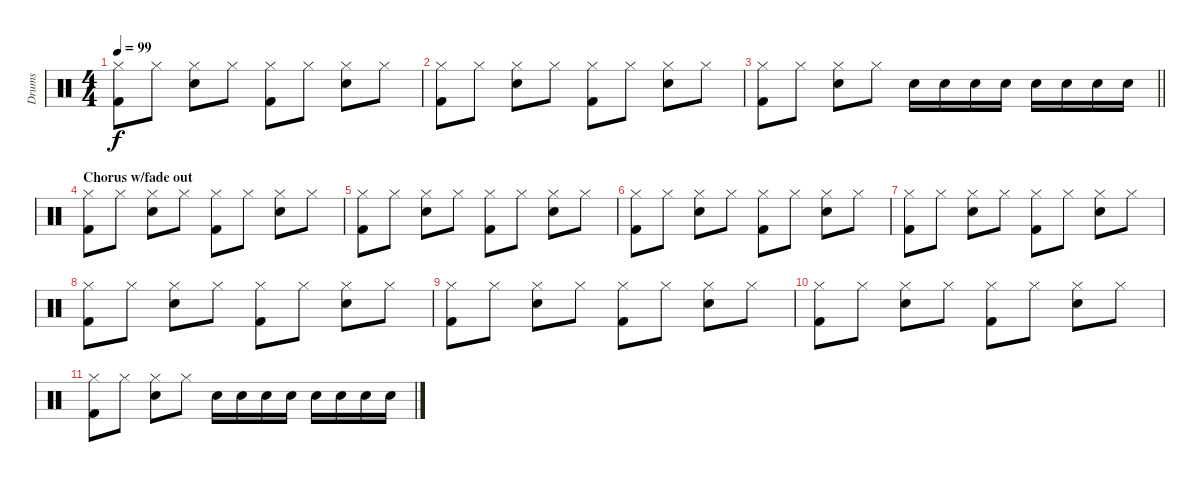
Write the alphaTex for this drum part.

\track ("Drums" "Drums") {instrument percussion}
\staff {score}
\articulation defaults
\ts (4 4)
\tempo 99
\clef neutral
\ks c
("Hi-Hat (closed)" "Kick (hit) 2").8{dy f} "Hi-Hat (closed)".8 ("Hi-Hat (closed)" "Snare (hit) 2").8 "Hi-Hat (closed)".8 ("Hi-Hat (closed)" "Kick (hit) 2").8 "Hi-Hat (closed)".8 ("Hi-Hat (closed)" "Snare (hit) 2").8 "Hi-Hat (closed)".8 |
("Hi-Hat (closed)" "Kick (hit) 2").8 "Hi-Hat (closed)".8 ("Hi-Hat (closed)" "Snare (hit) 2").8 "Hi-Hat (closed)".8 ("Hi-Hat (closed)" "Kick (hit) 2").8 "Hi-Hat (closed)".8 ("Hi-Hat (closed)" "Snare (hit) 2").8 "Hi-Hat (closed)".8 |
\barLineRight lightlight
("Hi-Hat (closed)" "Kick (hit) 2").8 "Hi-Hat (closed)".8 ("Hi-Hat (closed)" "Snare (hit) 2").8 "Hi-Hat (closed)".8 "Snare (hit) 2".16 "Snare (hit) 2".16 "Snare (hit) 2".16 "Snare (hit) 2".16 "Snare (hit) 2".16 "Snare (hit) 2".16 "Snare (hit) 2".16 "Snare (hit) 2".16 |
\section ("" "Chorus w/fade out")
("Hi-Hat (closed)" "Kick (hit) 2").8 "Hi-Hat (closed)".8 ("Hi-Hat (closed)" "Snare (hit) 2").8 "Hi-Hat (closed)".8 ("Hi-Hat (closed)" "Kick (hit) 2").8 "Hi-Hat (closed)".8 ("Hi-Hat (closed)" "Snare (hit) 2").8 "Hi-Hat (closed)".8 |
("Hi-Hat (closed)" "Kick (hit) 2").8 "Hi-Hat (closed)".8 ("Hi-Hat (closed)" "Snare (hit) 2").8 "Hi-Hat (closed)".8 ("Hi-Hat (closed)" "Kick (hit) 2").8 "Hi-Hat (closed)".8 ("Hi-Hat (closed)" "Snare (hit) 2").8 "Hi-Hat (closed)".8 |
("Hi-Hat (closed)" "Kick (hit) 2").8 "Hi-Hat (closed)".8 ("Hi-Hat (closed)" "Snare (hit) 2").8 "Hi-Hat (closed)".8 ("Hi-Hat (closed)" "Kick (hit) 2").8 "Hi-Hat (closed)".8 ("Hi-Hat (closed)" "Snare (hit) 2").8 "Hi-Hat (closed)".8 |
("Hi-Hat (closed)" "Kick (hit) 2").8 "Hi-Hat (closed)".8 ("Hi-Hat (closed)" "Snare (hit) 2").8 "Hi-Hat (closed)".8 ("Hi-Hat (closed)" "Kick (hit) 2").8 "Hi-Hat (closed)".8 ("Hi-Hat (closed)" "Snare (hit) 2").8 "Hi-Hat (closed)".8 |
("Hi-Hat (closed)" "Kick (hit) 2").8 "Hi-Hat (closed)".8 ("Hi-Hat (closed)" "Snare (hit) 2").8 "Hi-Hat (closed)".8 ("Hi-Hat (closed)" "Kick (hit) 2").8 "Hi-Hat (closed)".8 ("Hi-Hat (closed)" "Snare (hit) 2").8 "Hi-Hat (closed)".8 |
("Hi-Hat (closed)" "Kick (hit) 2").8 "Hi-Hat (closed)".8 ("Hi-Hat (closed)" "Snare (hit) 2").8 "Hi-Hat (closed)".8 ("Hi-Hat (closed)" "Kick (hit) 2").8 "Hi-Hat (closed)".8 ("Hi-Hat (closed)" "Snare (hit) 2").8 "Hi-Hat (closed)".8 |
("Hi-Hat (closed)" "Kick (hit) 2").8 "Hi-Hat (closed)".8 ("Hi-Hat (closed)" "Snare (hit) 2").8 "Hi-Hat (closed)".8 ("Hi-Hat (closed)" "Kick (hit) 2").8 "Hi-Hat (closed)".8 ("Hi-Hat (closed)" "Snare (hit) 2").8 "Hi-Hat (closed)".8 |
("Hi-Hat (closed)" "Kick (hit) 2").8 "Hi-Hat (closed)".8 ("Hi-Hat (closed)" "Snare (hit) 2").8 "Hi-Hat (closed)".8 "Snare (hit) 2".16 "Snare (hit) 2".16 "Snare (hit) 2".16 "Snare (hit) 2".16 "Snare (hit) 2".16 "Snare (hit) 2".16 "Snare (hit) 2".16 "Snare (hit) 2".16
